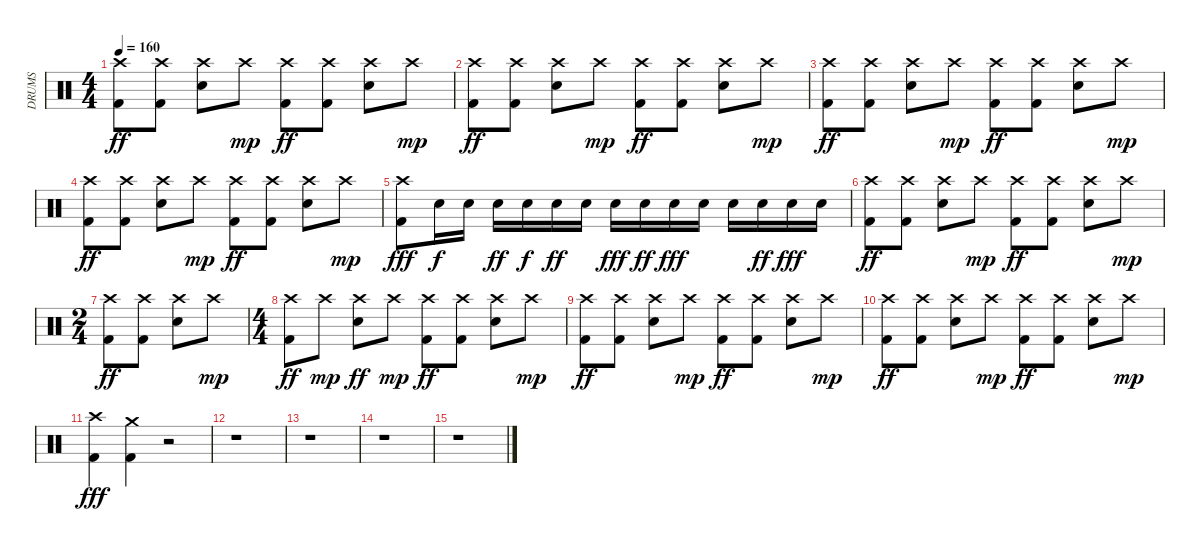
\track ("DRUMS" "DRUMS") {instrument percussion}
\staff {score}
\articulation defaults
\ts (4 4)
\tempo 160
\clef neutral
\ks c
("Crash high (hit)" "Kick (hit) 2").8{dy ff} ("Crash high (hit)" "Kick (hit) 2").8 ("Crash high (hit)" "Snare (hit) 2").8 "Crash high (hit)".8{dy mp} ("Crash high (hit)" "Kick (hit) 2").8{dy ff} ("Crash high (hit)" "Kick (hit) 2").8 ("Crash high (hit)" "Snare (hit) 2").8 "Crash high (hit)".8{dy mp} |
("Crash high (hit)" "Kick (hit) 2").8{dy ff} ("Crash high (hit)" "Kick (hit) 2").8 ("Crash high (hit)" "Snare (hit) 2").8 "Crash high (hit)".8{dy mp} ("Crash high (hit)" "Kick (hit) 2").8{dy ff} ("Crash high (hit)" "Kick (hit) 2").8 ("Crash high (hit)" "Snare (hit) 2").8 "Crash high (hit)".8{dy mp} |
("Crash high (hit)" "Kick (hit) 2").8{dy ff} ("Crash high (hit)" "Kick (hit) 2").8 ("Crash high (hit)" "Snare (hit) 2").8 "Crash high (hit)".8{dy mp} ("Crash high (hit)" "Kick (hit) 2").8{dy ff} ("Crash high (hit)" "Kick (hit) 2").8 ("Crash high (hit)" "Snare (hit) 2").8 "Crash high (hit)".8{dy mp} |
("Crash high (hit)" "Kick (hit) 2").8{dy ff} ("Crash high (hit)" "Kick (hit) 2").8 ("Crash high (hit)" "Snare (hit) 2").8 "Crash high (hit)".8{dy mp} ("Crash high (hit)" "Kick (hit) 2").8{dy ff} ("Crash high (hit)" "Kick (hit) 2").8 ("Crash high (hit)" "Snare (hit) 2").8 "Crash high (hit)".8{dy mp} |
("Crash high (hit)" "Kick (hit) 2").8{dy fff} "Electric Snare (hit)".16{dy f} "Snare (hit) 2".16 "Electric Snare (hit)".16{dy ff} "Snare (hit) 2".16{dy f} "Electric Snare (hit)".16{dy ff} "Snare (hit) 2".16 "Electric Snare (hit)".16{dy fff} "Snare (hit) 2".16{dy ff} "Electric Snare (hit)".16{dy fff} "Snare (hit) 2".16 "Electric Snare (hit)".16 "Snare (hit) 2".16{dy ff} "Electric Snare (hit)".16{dy fff} "Snare (hit) 2".16 |
("Crash high (hit)" "Kick (hit) 2").8{dy ff} ("Crash high (hit)" "Kick (hit) 2").8 ("Crash high (hit)" "Snare (hit) 2").8 "Crash high (hit)".8{dy mp} ("Crash high (hit)" "Kick (hit) 2").8{dy ff} ("Crash high (hit)" "Kick (hit) 2").8 ("Crash high (hit)" "Snare (hit) 2").8 "Crash high (hit)".8{dy mp} |
\ts (2 4)
("Crash high (hit)" "Kick (hit) 2").8{dy ff} ("Crash high (hit)" "Kick (hit) 2").8 ("Crash high (hit)" "Snare (hit) 2").8 "Crash high (hit)".8{dy mp} |
\ts (4 4)
("Crash high (hit)" "Kick (hit) 2").8{dy ff} "Crash high (hit)".8{dy mp} ("Crash high (hit)" "Snare (hit) 2").8{dy ff} "Crash high (hit)".8{dy mp} ("Crash high (hit)" "Kick (hit) 2").8{dy ff} ("Crash high (hit)" "Kick (hit) 2").8 ("Crash high (hit)" "Snare (hit) 2").8 "Crash high (hit)".8{dy mp} |
("Crash high (hit)" "Kick (hit) 2").8{dy ff} ("Crash high (hit)" "Kick (hit) 2").8 ("Crash high (hit)" "Snare (hit) 2").8 "Crash high (hit)".8{dy mp} ("Crash high (hit)" "Kick (hit) 2").8{dy ff} ("Crash high (hit)" "Kick (hit) 2").8 ("Crash high (hit)" "Snare (hit) 2").8 "Crash high (hit)".8{dy mp} |
("Crash high (hit)" "Kick (hit) 2").8{dy ff} ("Crash high (hit)" "Kick (hit) 2").8 ("Crash high (hit)" "Snare (hit) 2").8 "Crash high (hit)".8{dy mp} ("Crash high (hit)" "Kick (hit) 2").8{dy ff} ("Crash high (hit)" "Kick (hit) 2").8 ("Crash high (hit)" "Snare (hit) 2").8 "Crash high (hit)".8{dy mp} |
("Crash high (hit)" "Kick (hit) 2").4{dy fff} ("Crash medium (hit)" "Kick (hit) 2").4 r.2 |
r.1{volume 0} |
r.1 |
r.1 |
r.1
